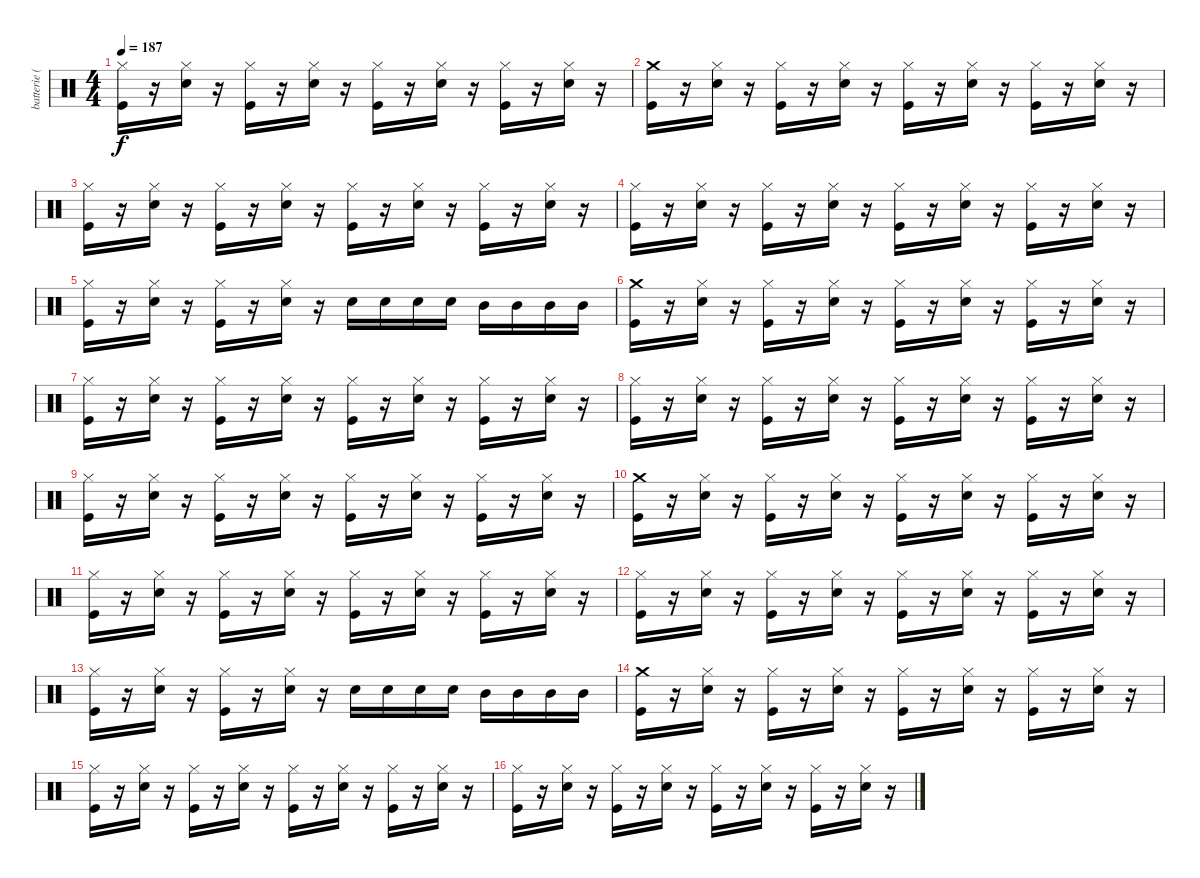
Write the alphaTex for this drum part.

\track ("batterie ( Mike ) " "batterie (") {instrument percussion}
\staff {score}
\articulation defaults
\ts (4 4)
\tempo 187
\clef neutral
\ks c
("Hi-Hat (closed)" "Kick (hit)").16{dy f} r.16 ("Hi-Hat (closed)" "Snare (hit) 2").16 r.16 ("Hi-Hat (closed)" "Kick (hit)").16 r.16 ("Hi-Hat (closed)" "Snare (hit) 2").16 r.16 ("Hi-Hat (closed)" "Kick (hit)").16 r.16 ("Hi-Hat (closed)" "Snare (hit) 2").16 r.16 ("Hi-Hat (closed)" "Kick (hit)").16 r.16 ("Hi-Hat (closed)" "Snare (hit) 2").16 r.16 |
("Crash medium (hit)" "Kick (hit)").16 r.16 ("Hi-Hat (closed)" "Snare (hit) 2").16 r.16 ("Hi-Hat (closed)" "Kick (hit)").16 r.16 ("Hi-Hat (closed)" "Snare (hit) 2").16 r.16 ("Hi-Hat (closed)" "Kick (hit)").16 r.16 ("Hi-Hat (closed)" "Snare (hit) 2").16 r.16 ("Hi-Hat (closed)" "Kick (hit)").16 r.16 ("Hi-Hat (closed)" "Snare (hit) 2").16 r.16 |
("Hi-Hat (closed)" "Kick (hit)").16 r.16 ("Hi-Hat (closed)" "Snare (hit) 2").16 r.16 ("Hi-Hat (closed)" "Kick (hit)").16 r.16 ("Hi-Hat (closed)" "Snare (hit) 2").16 r.16 ("Hi-Hat (closed)" "Kick (hit)").16 r.16 ("Hi-Hat (closed)" "Snare (hit) 2").16 r.16 ("Hi-Hat (closed)" "Kick (hit)").16 r.16 ("Hi-Hat (closed)" "Snare (hit) 2").16 r.16 |
("Hi-Hat (closed)" "Kick (hit)").16 r.16 ("Hi-Hat (closed)" "Snare (hit) 2").16 r.16 ("Hi-Hat (closed)" "Kick (hit)").16 r.16 ("Hi-Hat (closed)" "Snare (hit) 2").16 r.16 ("Hi-Hat (closed)" "Kick (hit)").16 r.16 ("Hi-Hat (closed)" "Snare (hit) 2").16 r.16 ("Hi-Hat (closed)" "Kick (hit)").16 r.16 ("Hi-Hat (closed)" "Snare (hit) 2").16 r.16 |
("Hi-Hat (closed)" "Kick (hit)").16 r.16 ("Hi-Hat (closed)" "Snare (hit) 2").16 r.16 ("Hi-Hat (closed)" "Kick (hit)").16 r.16 ("Hi-Hat (closed)" "Snare (hit) 2").16 r.16 "Snare (hit) 2".16 "Snare (hit) 2".16 "Snare (hit) 2".16 "Snare (hit) 2".16 "Mid Tom (hit)".16 "Mid Tom (hit)".16 "Mid Tom (hit)".16 "Mid Tom (hit)".16 |
("Crash medium (hit)" "Kick (hit)").16 r.16 ("Hi-Hat (closed)" "Snare (hit) 2").16 r.16 ("Hi-Hat (closed)" "Kick (hit)").16 r.16 ("Hi-Hat (closed)" "Snare (hit) 2").16 r.16 ("Hi-Hat (closed)" "Kick (hit)").16 r.16 ("Hi-Hat (closed)" "Snare (hit) 2").16 r.16 ("Hi-Hat (closed)" "Kick (hit)").16 r.16 ("Hi-Hat (closed)" "Snare (hit) 2").16 r.16 |
("Hi-Hat (closed)" "Kick (hit)").16 r.16 ("Hi-Hat (closed)" "Snare (hit) 2").16 r.16 ("Hi-Hat (closed)" "Kick (hit)").16 r.16 ("Hi-Hat (closed)" "Snare (hit) 2").16 r.16 ("Hi-Hat (closed)" "Kick (hit)").16 r.16 ("Hi-Hat (closed)" "Snare (hit) 2").16 r.16 ("Hi-Hat (closed)" "Kick (hit)").16 r.16 ("Hi-Hat (closed)" "Snare (hit) 2").16 r.16 |
("Hi-Hat (closed)" "Kick (hit)").16 r.16 ("Hi-Hat (closed)" "Snare (hit) 2").16 r.16 ("Hi-Hat (closed)" "Kick (hit)").16 r.16 ("Hi-Hat (closed)" "Snare (hit) 2").16 r.16 ("Hi-Hat (closed)" "Kick (hit)").16 r.16 ("Hi-Hat (closed)" "Snare (hit) 2").16 r.16 ("Hi-Hat (closed)" "Kick (hit)").16 r.16 ("Hi-Hat (closed)" "Snare (hit) 2").16 r.16 |
("Hi-Hat (closed)" "Kick (hit)").16 r.16 ("Hi-Hat (closed)" "Snare (hit) 2").16 r.16 ("Hi-Hat (closed)" "Kick (hit)").16 r.16 ("Hi-Hat (closed)" "Snare (hit) 2").16 r.16 ("Hi-Hat (closed)" "Kick (hit)").16 r.16 ("Hi-Hat (closed)" "Snare (hit) 2").16 r.16 ("Hi-Hat (closed)" "Kick (hit)").16 r.16 ("Hi-Hat (closed)" "Snare (hit) 2").16 r.16 |
("Crash medium (hit)" "Kick (hit)").16 r.16 ("Hi-Hat (closed)" "Snare (hit) 2").16 r.16 ("Hi-Hat (closed)" "Kick (hit)").16 r.16 ("Hi-Hat (closed)" "Snare (hit) 2").16 r.16 ("Hi-Hat (closed)" "Kick (hit)").16 r.16 ("Hi-Hat (closed)" "Snare (hit) 2").16 r.16 ("Hi-Hat (closed)" "Kick (hit)").16 r.16 ("Hi-Hat (closed)" "Snare (hit) 2").16 r.16 |
("Hi-Hat (closed)" "Kick (hit)").16 r.16 ("Hi-Hat (closed)" "Snare (hit) 2").16 r.16 ("Hi-Hat (closed)" "Kick (hit)").16 r.16 ("Hi-Hat (closed)" "Snare (hit) 2").16 r.16 ("Hi-Hat (closed)" "Kick (hit)").16 r.16 ("Hi-Hat (closed)" "Snare (hit) 2").16 r.16 ("Hi-Hat (closed)" "Kick (hit)").16 r.16 ("Hi-Hat (closed)" "Snare (hit) 2").16 r.16 |
("Hi-Hat (closed)" "Kick (hit)").16 r.16 ("Hi-Hat (closed)" "Snare (hit) 2").16 r.16 ("Hi-Hat (closed)" "Kick (hit)").16 r.16 ("Hi-Hat (closed)" "Snare (hit) 2").16 r.16 ("Hi-Hat (closed)" "Kick (hit)").16 r.16 ("Hi-Hat (closed)" "Snare (hit) 2").16 r.16 ("Hi-Hat (closed)" "Kick (hit)").16 r.16 ("Hi-Hat (closed)" "Snare (hit) 2").16 r.16 |
("Hi-Hat (closed)" "Kick (hit)").16 r.16 ("Hi-Hat (closed)" "Snare (hit) 2").16 r.16 ("Hi-Hat (closed)" "Kick (hit)").16 r.16 ("Hi-Hat (closed)" "Snare (hit) 2").16 r.16 "Snare (hit) 2".16 "Snare (hit) 2".16 "Snare (hit) 2".16 "Snare (hit) 2".16 "Mid Tom (hit)".16 "Mid Tom (hit)".16 "Mid Tom (hit)".16 "Mid Tom (hit)".16 |
("Crash medium (hit)" "Kick (hit)").16 r.16 ("Hi-Hat (closed)" "Snare (hit) 2").16 r.16 ("Hi-Hat (closed)" "Kick (hit)").16 r.16 ("Hi-Hat (closed)" "Snare (hit) 2").16 r.16 ("Hi-Hat (closed)" "Kick (hit)").16 r.16 ("Hi-Hat (closed)" "Snare (hit) 2").16 r.16 ("Hi-Hat (closed)" "Kick (hit)").16 r.16 ("Hi-Hat (closed)" "Snare (hit) 2").16 r.16 |
("Hi-Hat (closed)" "Kick (hit)").16 r.16 ("Hi-Hat (closed)" "Snare (hit) 2").16 r.16 ("Hi-Hat (closed)" "Kick (hit)").16 r.16 ("Hi-Hat (closed)" "Snare (hit) 2").16 r.16 ("Hi-Hat (closed)" "Kick (hit)").16 r.16 ("Hi-Hat (closed)" "Snare (hit) 2").16 r.16 ("Hi-Hat (closed)" "Kick (hit)").16 r.16 ("Hi-Hat (closed)" "Snare (hit) 2").16 r.16 |
("Hi-Hat (closed)" "Kick (hit)").16 r.16 ("Hi-Hat (closed)" "Snare (hit) 2").16 r.16 ("Hi-Hat (closed)" "Kick (hit)").16 r.16 ("Hi-Hat (closed)" "Snare (hit) 2").16 r.16 ("Hi-Hat (closed)" "Kick (hit)").16 r.16 ("Hi-Hat (closed)" "Snare (hit) 2").16 r.16 ("Hi-Hat (closed)" "Kick (hit)").16 r.16 ("Hi-Hat (closed)" "Snare (hit) 2").16 r.16
